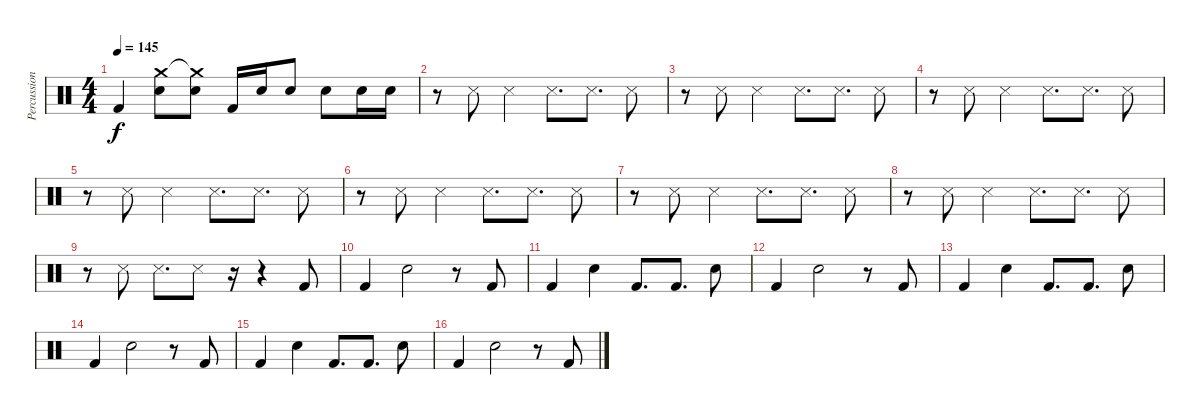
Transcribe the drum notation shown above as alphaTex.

\track ("Percussion" "Percussion") {instrument percussion}
\staff {score}
\articulation defaults
\ts (4 4)
\tempo 145
\clef neutral
\ks c "Kick (hit) 2".4{dy f}
("Crash medium (hit)" "Electric Snare (hit)").8 ("Crash medium (hit)"{t} "Electric Snare (hit)").8 "Kick (hit) 2".16 "Electric Snare (hit)".16 "Electric Snare (hit)".8 "Electric Snare (hit)".8 "Electric Snare (hit)".16 "Electric Snare (hit)".16 |
r.8 "Snare (side stick) 3".8 "Snare (side stick) 3".4 "Snare (side stick) 3".8{d} "Snare (side stick) 3".8{d} "Snare (side stick) 3".8 |
r.8 "Snare (side stick) 3".8 "Snare (side stick) 3".4 "Snare (side stick) 3".8{d} "Snare (side stick) 3".8{d} "Snare (side stick) 3".8 |
r.8 "Snare (side stick) 3".8 "Snare (side stick) 3".4 "Snare (side stick) 3".8{d} "Snare (side stick) 3".8{d} "Snare (side stick) 3".8 |
r.8 "Snare (side stick) 3".8 "Snare (side stick) 3".4 "Snare (side stick) 3".8{d} "Snare (side stick) 3".8{d} "Snare (side stick) 3".8 |
r.8 "Snare (side stick) 3".8 "Snare (side stick) 3".4 "Snare (side stick) 3".8{d} "Snare (side stick) 3".8{d} "Snare (side stick) 3".8 |
r.8 "Snare (side stick) 3".8 "Snare (side stick) 3".4 "Snare (side stick) 3".8{d} "Snare (side stick) 3".8{d} "Snare (side stick) 3".8 |
r.8 "Snare (side stick) 3".8 "Snare (side stick) 3".4 "Snare (side stick) 3".8{d} "Snare (side stick) 3".8{d} "Snare (side stick) 3".8 |
r.8 "Snare (side stick) 3".8 "Snare (side stick) 3".8{d} "Snare (side stick) 3".8 r.16 r.4 "Kick (hit) 2".8 |
"Kick (hit) 2".4 "Electric Snare (hit)".2 r.8 "Kick (hit) 2".8 |
"Kick (hit) 2".4 "Electric Snare (hit)".4 "Kick (hit) 2".8{d} "Kick (hit) 2".8{d} "Electric Snare (hit)".8 |
"Kick (hit) 2".4 "Electric Snare (hit)".2 r.8 "Kick (hit) 2".8 |
"Kick (hit) 2".4 "Electric Snare (hit)".4 "Kick (hit) 2".8{d} "Kick (hit) 2".8{d} "Electric Snare (hit)".8 |
"Kick (hit) 2".4 "Electric Snare (hit)".2 r.8 "Kick (hit) 2".8 |
"Kick (hit) 2".4 "Electric Snare (hit)".4 "Kick (hit) 2".8{d} "Kick (hit) 2".8{d} "Electric Snare (hit)".8 |
"Kick (hit) 2".4 "Electric Snare (hit)".2 r.8 "Kick (hit) 2".8
